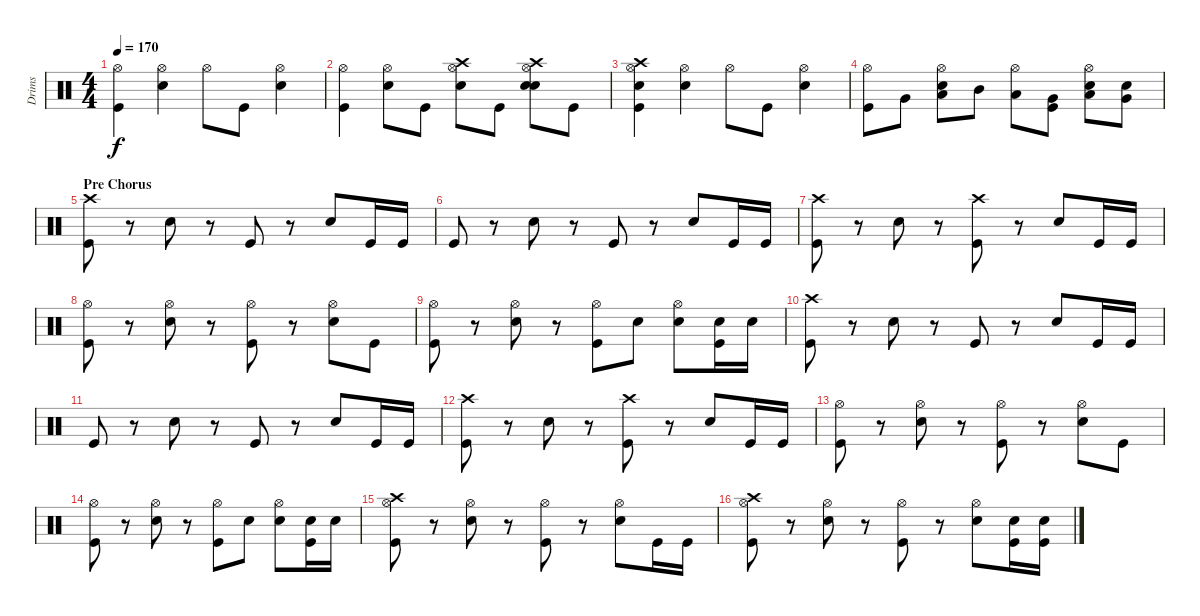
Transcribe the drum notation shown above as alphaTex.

\track ("Drims" "Drims") {instrument percussion}
\staff {score}
\articulation defaults
\ts (4 4)
\tempo 170
\clef neutral
\ks c
("Hi-Hat (open)" "Kick (hit)").4{dy f} ("Hi-Hat (open)" "Electric Snare (hit)").4 "Hi-Hat (open)".8 "Kick (hit)".8 ("Hi-Hat (open)" "Electric Snare (hit)").4 |
("Hi-Hat (open)" "Kick (hit)").4 ("Hi-Hat (open)" "Electric Snare (hit)").8 "Kick (hit)".8 ("Hi-Hat (open)" "Crash high (hit)" "Electric Snare (hit)").8 "Kick (hit)".8 ("Hi-Hat (open)" "Crash high (hit)" "Electric Snare (hit)" "Electric Snare (hit)").8 "Kick (hit)".8 |
("Hi-Hat (open)" "Crash high (hit)" "Electric Snare (hit)" "Kick (hit)").4 ("Hi-Hat (open)" "Electric Snare (hit)").4 "Hi-Hat (open)".8 "Kick (hit)".8 ("Hi-Hat (open)" "Electric Snare (hit)").4 |
("Hi-Hat (open)" "Kick (hit)").8 "Very Low Tom (hit)".8 ("Hi-Hat (open)" "Electric Snare (hit)" "Low Tom (hit)").8 "Mid Tom (hit)".8 ("Hi-Hat (open)" "Low Tom (hit)").8 ("Very Low Tom (hit)" "Kick (hit)").8 ("Hi-Hat (open)" "Electric Snare (hit)" "Low Floor Tom (hit)").8 ("Electric Snare (hit)" "Very Low Tom (hit)").8 |
\section ("" "Pre Chorus")
("Crash high (hit)" "Kick (hit)").8 r.8 "Electric Snare (hit)".8 r.8 "Kick (hit)".8 r.8 "Electric Snare (hit)".8 "Kick (hit)".16 "Kick (hit)".16 |
"Kick (hit)".8 r.8 "Electric Snare (hit)".8 r.8 "Kick (hit)".8 r.8 "Electric Snare (hit)".8 "Kick (hit)".16 "Kick (hit)".16 |
("Crash high (hit)" "Kick (hit)").8 r.8 "Electric Snare (hit)".8 r.8 ("Crash high (hit)" "Kick (hit)").8 r.8 "Electric Snare (hit)".8 "Kick (hit)".16 "Kick (hit)".16 |
("Hi-Hat (open)" "Kick (hit)").8 r.8 ("Hi-Hat (open)" "Electric Snare (hit)").8 r.8 ("Hi-Hat (open)" "Kick (hit)").8 r.8 ("Hi-Hat (open)" "Electric Snare (hit)").8 "Kick (hit)".8 |
("Hi-Hat (open)" "Kick (hit)").8 r.8 ("Hi-Hat (open)" "Electric Snare (hit)").8 r.8 ("Hi-Hat (open)" "Kick (hit)").8 "Electric Snare (hit)".8 ("Hi-Hat (open)" "Electric Snare (hit)").8 ("Electric Snare (hit)" "Kick (hit)").16 "Electric Snare (hit)".16 |
("Crash high (hit)" "Kick (hit)").8 r.8 "Electric Snare (hit)".8 r.8 "Kick (hit)".8 r.8 "Electric Snare (hit)".8 "Kick (hit)".16 "Kick (hit)".16 |
"Kick (hit)".8 r.8 "Electric Snare (hit)".8 r.8 "Kick (hit)".8 r.8 "Electric Snare (hit)".8 "Kick (hit)".16 "Kick (hit)".16 |
("Crash high (hit)" "Kick (hit)").8 r.8 "Electric Snare (hit)".8 r.8 ("Crash high (hit)" "Kick (hit)").8 r.8 "Electric Snare (hit)".8 "Kick (hit)".16 "Kick (hit)".16 |
("Hi-Hat (open)" "Kick (hit)").8 r.8 ("Hi-Hat (open)" "Electric Snare (hit)").8 r.8 ("Hi-Hat (open)" "Kick (hit)").8 r.8 ("Hi-Hat (open)" "Electric Snare (hit)").8 "Kick (hit)".8 |
("Hi-Hat (open)" "Kick (hit)").8 r.8 ("Hi-Hat (open)" "Electric Snare (hit)").8 r.8 ("Hi-Hat (open)" "Kick (hit)").8 "Electric Snare (hit)".8 ("Hi-Hat (open)" "Electric Snare (hit)").8 ("Electric Snare (hit)" "Kick (hit)").16 "Electric Snare (hit)".16 |
("Hi-Hat (open)" "Crash high (hit)" "Kick (hit)").8 r.8 ("Hi-Hat (open)" "Electric Snare (hit)").8 r.8 ("Hi-Hat (open)" "Kick (hit)").8 r.8 ("Hi-Hat (open)" "Electric Snare (hit)").8 "Kick (hit)".16 "Kick (hit)".16 |
("Hi-Hat (open)" "Crash high (hit)" "Kick (hit)").8 r.8 ("Hi-Hat (open)" "Electric Snare (hit)").8 r.8 ("Hi-Hat (open)" "Kick (hit)").8 r.8 ("Hi-Hat (open)" "Electric Snare (hit)").8 ("Electric Snare (hit)" "Kick (hit)").16 ("Electric Snare (hit)" "Kick (hit)").16
